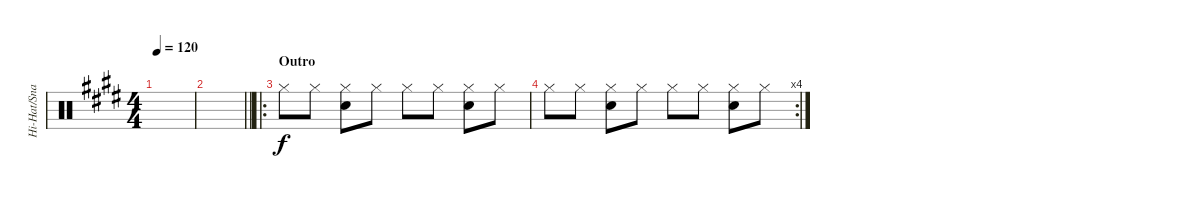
\track ("Hi-Hat/Snare" "Hi-Hat/Sna") {instrument percussion}
\staff {score}
\articulation defaults
\ts (4 4)
\tempo 120
\clef neutral
\ks e
|
\barLineRight lightlight
|
\ro
\section ("" "Outro")
"Hi-Hat (closed)".8 "Hi-Hat (closed)".8 ("Hi-Hat (closed)" "Snare (hit) 2").8 "Hi-Hat (closed)".8 "Hi-Hat (closed)".8 "Hi-Hat (closed)".8 ("Hi-Hat (closed)" "Snare (hit) 2").8 "Hi-Hat (closed)".8 |
\rc 4 "Hi-Hat (closed)".8 "Hi-Hat (closed)".8
("Hi-Hat (closed)" "Snare (hit) 2").8 "Hi-Hat (closed)".8 "Hi-Hat (closed)".8 "Hi-Hat (closed)".8 ("Hi-Hat (closed)" "Snare (hit) 2").8 "Hi-Hat (closed)".8
